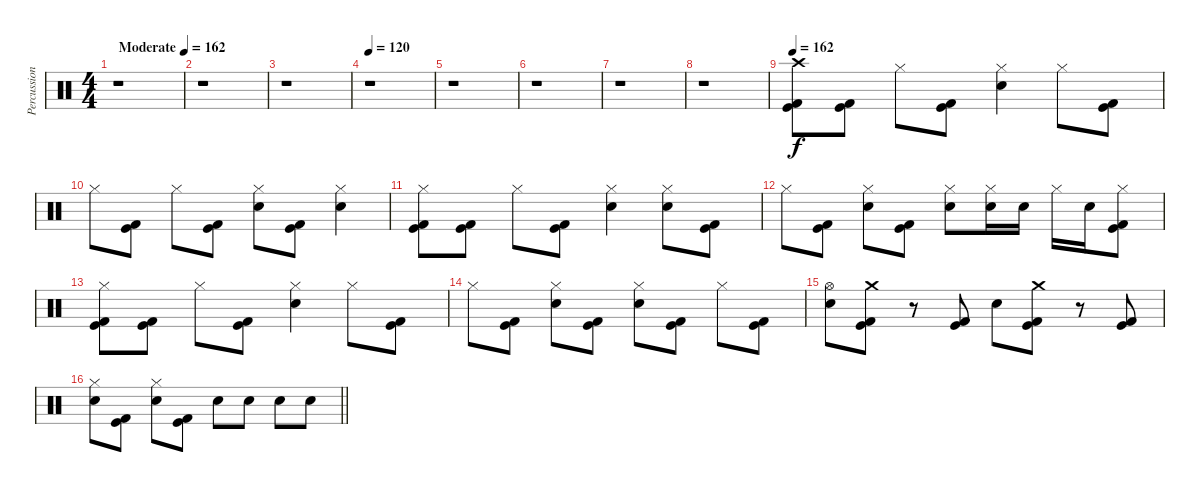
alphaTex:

\track ("Percussion" "Percussion") {instrument percussion}
\staff {score}
\articulation defaults
\ts (4 4)
\tempo (162 "Moderate")
\tempo 140
\tempo (162 "Moderate")
\clef neutral
\ks c
r.1{dy f} |
r.1 |
r.1 |
\tempo 120
r.1 |
r.1 |
r.1 |
r.1 |
r.1 |
\tempo 162
("Crash high (hit)" "Kick (hit)" "Kick (hit) 2").8 ("Kick (hit)" "Kick (hit) 2").8 "Hi-Hat (closed)".8 ("Kick (hit)" "Kick (hit) 2").8 ("Hi-Hat (closed)" "Electric Snare (hit)").4 "Hi-Hat (closed)".8 ("Kick (hit)" "Kick (hit) 2").8 |
"Hi-Hat (closed)".8 ("Kick (hit)" "Kick (hit) 2").8 "Hi-Hat (closed)".8 ("Kick (hit)" "Kick (hit) 2").8 ("Hi-Hat (closed)" "Electric Snare (hit)").8 ("Kick (hit)" "Kick (hit) 2").8 ("Hi-Hat (closed)" "Electric Snare (hit)").4 |
("Hi-Hat (closed)" "Kick (hit)" "Kick (hit) 2").8 ("Kick (hit)" "Kick (hit) 2").8 "Hi-Hat (closed)".8 ("Kick (hit)" "Kick (hit) 2").8 ("Hi-Hat (closed)" "Electric Snare (hit)").4 ("Hi-Hat (closed)" "Electric Snare (hit)").8 ("Kick (hit)" "Kick (hit) 2").8 |
"Hi-Hat (closed)".8 ("Kick (hit)" "Kick (hit) 2").8 ("Hi-Hat (closed)" "Electric Snare (hit)").8 ("Kick (hit)" "Kick (hit) 2").8 ("Hi-Hat (closed)" "Electric Snare (hit)").8 ("Hi-Hat (closed)" "Electric Snare (hit)").16 "Electric Snare (hit)".16 "Hi-Hat (closed)".16 "Electric Snare (hit)".16 ("Hi-Hat (closed)" "Kick (hit)" "Kick (hit) 2").8 |
("Hi-Hat (closed)" "Kick (hit)" "Kick (hit) 2").8 ("Kick (hit)" "Kick (hit) 2").8 "Hi-Hat (closed)".8 ("Kick (hit)" "Kick (hit) 2").8 ("Hi-Hat (closed)" "Electric Snare (hit)").4 "Hi-Hat (closed)".8 ("Kick (hit)" "Kick (hit) 2").8 |
"Hi-Hat (closed)".8 ("Kick (hit)" "Kick (hit) 2").8 ("Hi-Hat (closed)" "Electric Snare (hit)").8 ("Kick (hit)" "Kick (hit) 2").8 ("Hi-Hat (closed)" "Electric Snare (hit)").8 ("Kick (hit)" "Kick (hit) 2").8 "Hi-Hat (closed)".8 ("Kick (hit)" "Kick (hit) 2").8 |
("Hi-Hat (open)" "Electric Snare (hit)").8 ("Crash medium (hit)" "Kick (hit)" "Kick (hit) 2").8 r.8 ("Kick (hit)" "Kick (hit) 2").8 "Electric Snare (hit)".8 ("Crash medium (hit)" "Kick (hit)" "Kick (hit) 2").8 r.8 ("Kick (hit)" "Kick (hit) 2").8 |
\barLineRight lightlight
("Hi-Hat (closed)" "Electric Snare (hit)").8 ("Kick (hit)" "Kick (hit) 2").8 ("Hi-Hat (closed)" "Electric Snare (hit)").8 ("Kick (hit)" "Kick (hit) 2").8 "Electric Snare (hit)".8 "Electric Snare (hit)".8 "Electric Snare (hit)".8 "Electric Snare (hit)".8
